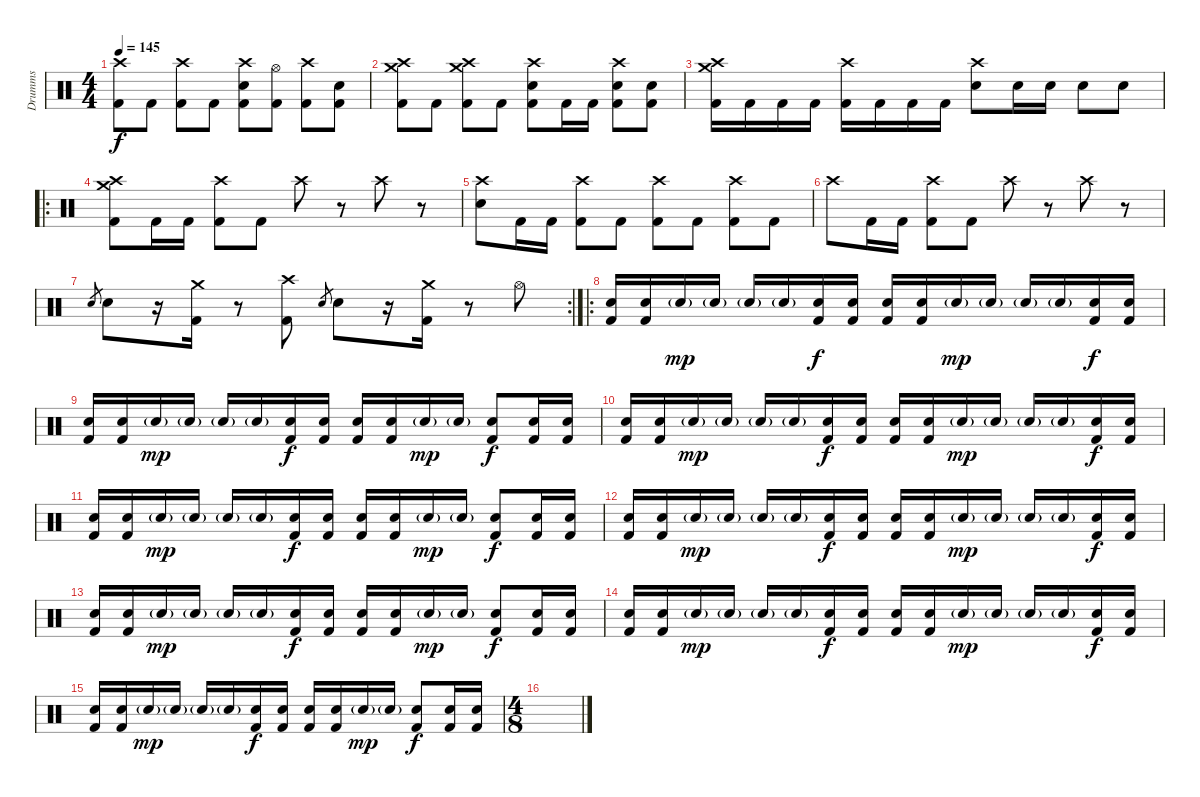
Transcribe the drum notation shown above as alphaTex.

\track ("Drumms" "Drumms") {instrument percussion}
\staff {score}
\articulation defaults
\ts (4 4)
\tempo 145
\clef neutral
\ks c
("Crash high (hit)" "Kick (hit) 2").8{dy f} "Kick (hit) 2".8 ("Crash high (hit)" "Kick (hit) 2").8 "Kick (hit) 2".8 ("Crash high (hit)" "Electric Snare (hit)" "Kick (hit) 2").8 ("Hi-Hat (open)" "Kick (hit) 2").8 ("Crash high (hit)" "Kick (hit) 2").8 ("Electric Snare (hit)" "Kick (hit) 2").8 |
("Crash high (hit)" "Crash medium (hit)" "Kick (hit) 2").8 "Kick (hit) 2".8 ("Crash high (hit)" "Crash medium (hit)" "Kick (hit) 2").8 "Kick (hit) 2".8 ("Crash high (hit)" "Electric Snare (hit)" "Kick (hit) 2").8 "Kick (hit) 2".16 "Kick (hit) 2".16 ("Crash high (hit)" "Electric Snare (hit)" "Kick (hit) 2").8 ("Electric Snare (hit)" "Kick (hit) 2").8 |
("Crash high (hit)" "Crash medium (hit)" "Kick (hit) 2").16 "Kick (hit) 2".16 "Kick (hit) 2".16 "Kick (hit) 2".16 ("Crash high (hit)" "Kick (hit) 2").16 "Kick (hit) 2".16 "Kick (hit) 2".16 "Kick (hit) 2".16 ("Crash high (hit)" "Electric Snare (hit)").8 "Electric Snare (hit)".16 "Electric Snare (hit)".16 "Electric Snare (hit)".8 "Electric Snare (hit)".8 |
\ro
("Crash high (hit)" "Crash medium (hit)" "Kick (hit) 2").8 "Kick (hit) 2".16 "Kick (hit) 2".16 ("Crash high (hit)" "Kick (hit) 2").8 "Kick (hit) 2".8 "Crash high (hit)".8 r.8 "Crash high (hit)".8 r.8 |
("Crash high (hit)" "Electric Snare (hit)").8 "Kick (hit) 2".16 "Kick (hit) 2".16 ("Crash high (hit)" "Kick (hit) 2").8 "Kick (hit) 2".8 ("Crash high (hit)" "Kick (hit) 2").8 "Kick (hit) 2".8 ("Crash high (hit)" "Kick (hit) 2").8 "Kick (hit) 2".8 |
"Crash high (hit)".8 "Kick (hit) 2".16 "Kick (hit) 2".16 ("Crash high (hit)" "Kick (hit) 2").8 "Kick (hit) 2".8 "Crash high (hit)".8 r.8 "Crash high (hit)".8 r.8 |
\rc 2 "Electric Snare (hit)".8{gr} "Electric Snare (hit)".8
r.16 ("Crash medium (hit)" "Kick (hit) 2").16 r.8 ("Crash high (hit)" "Kick (hit) 2").8 "Electric Snare (hit)".8{gr} "Electric Snare (hit)".8 r.16 ("Crash medium (hit)" "Kick (hit) 2").16 r.8 "Hi-Hat (open)".8 |
\ro
("Electric Snare (hit)" "Kick (hit) 2").16 ("Electric Snare (hit)" "Kick (hit) 2").16 "Electric Snare (hit)"{g}.16{dy mp} "Electric Snare (hit)"{g}.16 "Electric Snare (hit)"{g}.16 "Electric Snare (hit)"{g}.16 ("Electric Snare (hit)" "Kick (hit) 2").16{dy f} ("Electric Snare (hit)" "Kick (hit) 2").16 ("Electric Snare (hit)" "Kick (hit) 2").16 ("Electric Snare (hit)" "Kick (hit) 2").16 "Electric Snare (hit)"{g}.16{dy mp} "Electric Snare (hit)"{g}.16 "Electric Snare (hit)"{g}.16 "Electric Snare (hit)"{g}.16 ("Electric Snare (hit)" "Kick (hit) 2").16{dy f} ("Electric Snare (hit)" "Kick (hit) 2").16 |
("Electric Snare (hit)" "Kick (hit) 2").16 ("Electric Snare (hit)" "Kick (hit) 2").16 "Electric Snare (hit)"{g}.16{dy mp} "Electric Snare (hit)"{g}.16 "Electric Snare (hit)"{g}.16 "Electric Snare (hit)"{g}.16 ("Electric Snare (hit)" "Kick (hit) 2").16{dy f} ("Electric Snare (hit)" "Kick (hit) 2").16 ("Electric Snare (hit)" "Kick (hit) 2").16 ("Electric Snare (hit)" "Kick (hit) 2").16 "Electric Snare (hit)"{g}.16{dy mp} "Electric Snare (hit)"{g}.16 ("Electric Snare (hit)" "Kick (hit) 2").8{dy f} ("Electric Snare (hit)" "Kick (hit) 2").16 ("Electric Snare (hit)" "Kick (hit) 2").16 |
("Electric Snare (hit)" "Kick (hit) 2").16 ("Electric Snare (hit)" "Kick (hit) 2").16 "Electric Snare (hit)"{g}.16{dy mp} "Electric Snare (hit)"{g}.16 "Electric Snare (hit)"{g}.16 "Electric Snare (hit)"{g}.16 ("Electric Snare (hit)" "Kick (hit) 2").16{dy f} ("Electric Snare (hit)" "Kick (hit) 2").16 ("Electric Snare (hit)" "Kick (hit) 2").16 ("Electric Snare (hit)" "Kick (hit) 2").16 "Electric Snare (hit)"{g}.16{dy mp} "Electric Snare (hit)"{g}.16 "Electric Snare (hit)"{g}.16 "Electric Snare (hit)"{g}.16 ("Electric Snare (hit)" "Kick (hit) 2").16{dy f} ("Electric Snare (hit)" "Kick (hit) 2").16 |
("Electric Snare (hit)" "Kick (hit) 2").16 ("Electric Snare (hit)" "Kick (hit) 2").16 "Electric Snare (hit)"{g}.16{dy mp} "Electric Snare (hit)"{g}.16 "Electric Snare (hit)"{g}.16 "Electric Snare (hit)"{g}.16 ("Electric Snare (hit)" "Kick (hit) 2").16{dy f} ("Electric Snare (hit)" "Kick (hit) 2").16 ("Electric Snare (hit)" "Kick (hit) 2").16 ("Electric Snare (hit)" "Kick (hit) 2").16 "Electric Snare (hit)"{g}.16{dy mp} "Electric Snare (hit)"{g}.16 ("Electric Snare (hit)" "Kick (hit) 2").8{dy f} ("Electric Snare (hit)" "Kick (hit) 2").16 ("Electric Snare (hit)" "Kick (hit) 2").16 |
("Electric Snare (hit)" "Kick (hit) 2").16 ("Electric Snare (hit)" "Kick (hit) 2").16 "Electric Snare (hit)"{g}.16{dy mp} "Electric Snare (hit)"{g}.16 "Electric Snare (hit)"{g}.16 "Electric Snare (hit)"{g}.16 ("Electric Snare (hit)" "Kick (hit) 2").16{dy f} ("Electric Snare (hit)" "Kick (hit) 2").16 ("Electric Snare (hit)" "Kick (hit) 2").16 ("Electric Snare (hit)" "Kick (hit) 2").16 "Electric Snare (hit)"{g}.16{dy mp} "Electric Snare (hit)"{g}.16 "Electric Snare (hit)"{g}.16 "Electric Snare (hit)"{g}.16 ("Electric Snare (hit)" "Kick (hit) 2").16{dy f} ("Electric Snare (hit)" "Kick (hit) 2").16 |
("Electric Snare (hit)" "Kick (hit) 2").16 ("Electric Snare (hit)" "Kick (hit) 2").16 "Electric Snare (hit)"{g}.16{dy mp} "Electric Snare (hit)"{g}.16 "Electric Snare (hit)"{g}.16 "Electric Snare (hit)"{g}.16 ("Electric Snare (hit)" "Kick (hit) 2").16{dy f} ("Electric Snare (hit)" "Kick (hit) 2").16 ("Electric Snare (hit)" "Kick (hit) 2").16 ("Electric Snare (hit)" "Kick (hit) 2").16 "Electric Snare (hit)"{g}.16{dy mp} "Electric Snare (hit)"{g}.16 ("Electric Snare (hit)" "Kick (hit) 2").8{dy f} ("Electric Snare (hit)" "Kick (hit) 2").16 ("Electric Snare (hit)" "Kick (hit) 2").16 |
("Electric Snare (hit)" "Kick (hit) 2").16 ("Electric Snare (hit)" "Kick (hit) 2").16 "Electric Snare (hit)"{g}.16{dy mp} "Electric Snare (hit)"{g}.16 "Electric Snare (hit)"{g}.16 "Electric Snare (hit)"{g}.16 ("Electric Snare (hit)" "Kick (hit) 2").16{dy f} ("Electric Snare (hit)" "Kick (hit) 2").16 ("Electric Snare (hit)" "Kick (hit) 2").16 ("Electric Snare (hit)" "Kick (hit) 2").16 "Electric Snare (hit)"{g}.16{dy mp} "Electric Snare (hit)"{g}.16 "Electric Snare (hit)"{g}.16 "Electric Snare (hit)"{g}.16 ("Electric Snare (hit)" "Kick (hit) 2").16{dy f} ("Electric Snare (hit)" "Kick (hit) 2").16 |
("Electric Snare (hit)" "Kick (hit) 2").16 ("Electric Snare (hit)" "Kick (hit) 2").16 "Electric Snare (hit)"{g}.16{dy mp} "Electric Snare (hit)"{g}.16 "Electric Snare (hit)"{g}.16 "Electric Snare (hit)"{g}.16 ("Electric Snare (hit)" "Kick (hit) 2").16{dy f} ("Electric Snare (hit)" "Kick (hit) 2").16 ("Electric Snare (hit)" "Kick (hit) 2").16 ("Electric Snare (hit)" "Kick (hit) 2").16 "Electric Snare (hit)"{g}.16{dy mp} "Electric Snare (hit)"{g}.16 ("Electric Snare (hit)" "Kick (hit) 2").8{dy f} ("Electric Snare (hit)" "Kick (hit) 2").16 ("Electric Snare (hit)" "Kick (hit) 2").16 |
\ts (4 8)
